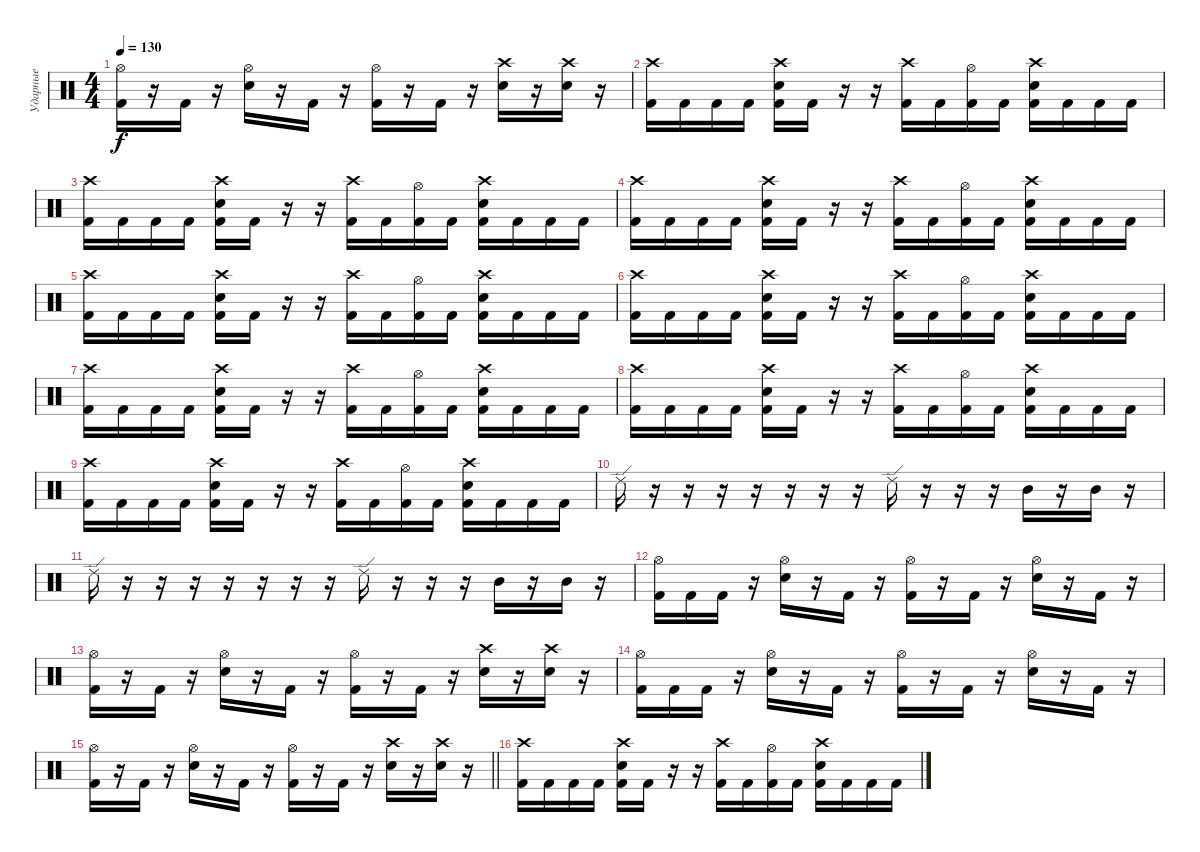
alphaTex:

\track ("Ударные" "Ударные") {instrument percussion}
\staff {score}
\articulation defaults
\ts (4 4)
\tempo 130
\clef neutral
\ks c
("Hi-Hat (open)" "Kick (hit) 2").16{dy f} r.16 "Kick (hit) 2".16 r.16 ("Hi-Hat (open)" "Electric Snare (hit)").16 r.16 "Kick (hit) 2".16 r.16 ("Hi-Hat (open)" "Kick (hit) 2").16 r.16 "Kick (hit) 2".16 r.16 ("Crash high (hit)" "Electric Snare (hit)").16 r.16 ("Crash high (hit)" "Electric Snare (hit)").16 r.16 |
("Crash high (hit)" "Kick (hit) 2").16 "Kick (hit) 2".16 "Kick (hit) 2".16 "Kick (hit) 2".16 ("Crash high (hit)" "Electric Snare (hit)" "Kick (hit) 2").16 "Kick (hit) 2".16 r.16 r.16 ("Crash high (hit)" "Kick (hit) 2").16 "Kick (hit) 2".16 ("Hi-Hat (open)" "Kick (hit) 2").16 "Kick (hit) 2".16 ("Crash high (hit)" "Electric Snare (hit)" "Kick (hit) 2").16 "Kick (hit) 2".16 "Kick (hit) 2".16 "Kick (hit) 2".16 |
("Crash high (hit)" "Kick (hit) 2").16 "Kick (hit) 2".16 "Kick (hit) 2".16 "Kick (hit) 2".16 ("Crash high (hit)" "Electric Snare (hit)" "Kick (hit) 2").16 "Kick (hit) 2".16 r.16 r.16 ("Crash high (hit)" "Kick (hit) 2").16 "Kick (hit) 2".16 ("Hi-Hat (open)" "Kick (hit) 2").16 "Kick (hit) 2".16 ("Crash high (hit)" "Electric Snare (hit)" "Kick (hit) 2").16 "Kick (hit) 2".16 "Kick (hit) 2".16 "Kick (hit) 2".16 |
("Crash high (hit)" "Kick (hit) 2").16 "Kick (hit) 2".16 "Kick (hit) 2".16 "Kick (hit) 2".16 ("Crash high (hit)" "Electric Snare (hit)" "Kick (hit) 2").16 "Kick (hit) 2".16 r.16 r.16 ("Crash high (hit)" "Kick (hit) 2").16 "Kick (hit) 2".16 ("Hi-Hat (open)" "Kick (hit) 2").16 "Kick (hit) 2".16 ("Crash high (hit)" "Electric Snare (hit)" "Kick (hit) 2").16 "Kick (hit) 2".16 "Kick (hit) 2".16 "Kick (hit) 2".16 |
("Crash high (hit)" "Kick (hit) 2").16 "Kick (hit) 2".16 "Kick (hit) 2".16 "Kick (hit) 2".16 ("Crash high (hit)" "Electric Snare (hit)" "Kick (hit) 2").16 "Kick (hit) 2".16 r.16 r.16 ("Crash high (hit)" "Kick (hit) 2").16 "Kick (hit) 2".16 ("Hi-Hat (open)" "Kick (hit) 2").16 "Kick (hit) 2".16 ("Crash high (hit)" "Electric Snare (hit)" "Kick (hit) 2").16 "Kick (hit) 2".16 "Kick (hit) 2".16 "Kick (hit) 2".16 |
("Crash high (hit)" "Kick (hit) 2").16 "Kick (hit) 2".16 "Kick (hit) 2".16 "Kick (hit) 2".16 ("Crash high (hit)" "Electric Snare (hit)" "Kick (hit) 2").16 "Kick (hit) 2".16 r.16 r.16 ("Crash high (hit)" "Kick (hit) 2").16 "Kick (hit) 2".16 ("Hi-Hat (open)" "Kick (hit) 2").16 "Kick (hit) 2".16 ("Crash high (hit)" "Electric Snare (hit)" "Kick (hit) 2").16 "Kick (hit) 2".16 "Kick (hit) 2".16 "Kick (hit) 2".16 |
("Crash high (hit)" "Kick (hit) 2").16 "Kick (hit) 2".16 "Kick (hit) 2".16 "Kick (hit) 2".16 ("Crash high (hit)" "Electric Snare (hit)" "Kick (hit) 2").16 "Kick (hit) 2".16 r.16 r.16 ("Crash high (hit)" "Kick (hit) 2").16 "Kick (hit) 2".16 ("Hi-Hat (open)" "Kick (hit) 2").16 "Kick (hit) 2".16 ("Crash high (hit)" "Electric Snare (hit)" "Kick (hit) 2").16 "Kick (hit) 2".16 "Kick (hit) 2".16 "Kick (hit) 2".16 |
("Crash high (hit)" "Kick (hit) 2").16 "Kick (hit) 2".16 "Kick (hit) 2".16 "Kick (hit) 2".16 ("Crash high (hit)" "Electric Snare (hit)" "Kick (hit) 2").16 "Kick (hit) 2".16 r.16 r.16 ("Crash high (hit)" "Kick (hit) 2").16 "Kick (hit) 2".16 ("Hi-Hat (open)" "Kick (hit) 2").16 "Kick (hit) 2".16 ("Crash high (hit)" "Electric Snare (hit)" "Kick (hit) 2").16 "Kick (hit) 2".16 "Kick (hit) 2".16 "Kick (hit) 2".16 |
("Crash high (hit)" "Kick (hit) 2").16 "Kick (hit) 2".16 "Kick (hit) 2".16 "Kick (hit) 2".16 ("Crash high (hit)" "Electric Snare (hit)" "Kick (hit) 2").16 "Kick (hit) 2".16 r.16 r.16 ("Crash high (hit)" "Kick (hit) 2").16 "Kick (hit) 2".16 ("Hi-Hat (open)" "Kick (hit) 2").16 "Kick (hit) 2".16 ("Crash high (hit)" "Electric Snare (hit)" "Kick (hit) 2").16 "Kick (hit) 2".16 "Kick (hit) 2".16 "Kick (hit) 2".16 |
"Ride (edge) 2".16 r.16 r.16 r.16 r.16 r.16 r.16 r.16 "Ride (edge) 2".16 r.16 r.16 r.16 "Mid Tom (hit)".16 r.16 "Mid Tom (hit)".16 r.16 |
"Ride (edge) 2".16 r.16 r.16 r.16 r.16 r.16 r.16 r.16 "Ride (edge) 2".16 r.16 r.16 r.16 "Mid Tom (hit)".16 r.16 "Mid Tom (hit)".16 r.16 |
("Hi-Hat (open)" "Kick (hit) 2").16 "Kick (hit) 2".16 "Kick (hit) 2".16 r.16 ("Hi-Hat (open)" "Electric Snare (hit)").16 r.16 "Kick (hit) 2".16 r.16 ("Hi-Hat (open)" "Kick (hit) 2").16 r.16 "Kick (hit) 2".16 r.16 ("Hi-Hat (open)" "Electric Snare (hit)").16 r.16 "Kick (hit) 2".16 r.16 |
("Hi-Hat (open)" "Kick (hit) 2").16 r.16 "Kick (hit) 2".16 r.16 ("Hi-Hat (open)" "Electric Snare (hit)").16 r.16 "Kick (hit) 2".16 r.16 ("Hi-Hat (open)" "Kick (hit) 2").16 r.16 "Kick (hit) 2".16 r.16 ("Crash high (hit)" "Electric Snare (hit)").16 r.16 ("Crash high (hit)" "Electric Snare (hit)").16 r.16 |
("Hi-Hat (open)" "Kick (hit) 2").16 "Kick (hit) 2".16 "Kick (hit) 2".16 r.16 ("Hi-Hat (open)" "Electric Snare (hit)").16 r.16 "Kick (hit) 2".16 r.16 ("Hi-Hat (open)" "Kick (hit) 2").16 r.16 "Kick (hit) 2".16 r.16 ("Hi-Hat (open)" "Electric Snare (hit)").16 r.16 "Kick (hit) 2".16 r.16 |
\barLineRight lightlight
("Hi-Hat (open)" "Kick (hit) 2").16 r.16 "Kick (hit) 2".16 r.16 ("Hi-Hat (open)" "Electric Snare (hit)").16 r.16 "Kick (hit) 2".16 r.16 ("Hi-Hat (open)" "Kick (hit) 2").16 r.16 "Kick (hit) 2".16 r.16 ("Crash high (hit)" "Electric Snare (hit)").16 r.16 ("Crash high (hit)" "Electric Snare (hit)").16 r.16 |
("Crash high (hit)" "Kick (hit) 2").16 "Kick (hit) 2".16 "Kick (hit) 2".16 "Kick (hit) 2".16 ("Crash high (hit)" "Electric Snare (hit)" "Kick (hit) 2").16 "Kick (hit) 2".16 r.16 r.16 ("Crash high (hit)" "Kick (hit) 2").16 "Kick (hit) 2".16 ("Hi-Hat (open)" "Kick (hit) 2").16 "Kick (hit) 2".16 ("Crash high (hit)" "Electric Snare (hit)" "Kick (hit) 2").16 "Kick (hit) 2".16 "Kick (hit) 2".16 "Kick (hit) 2".16
